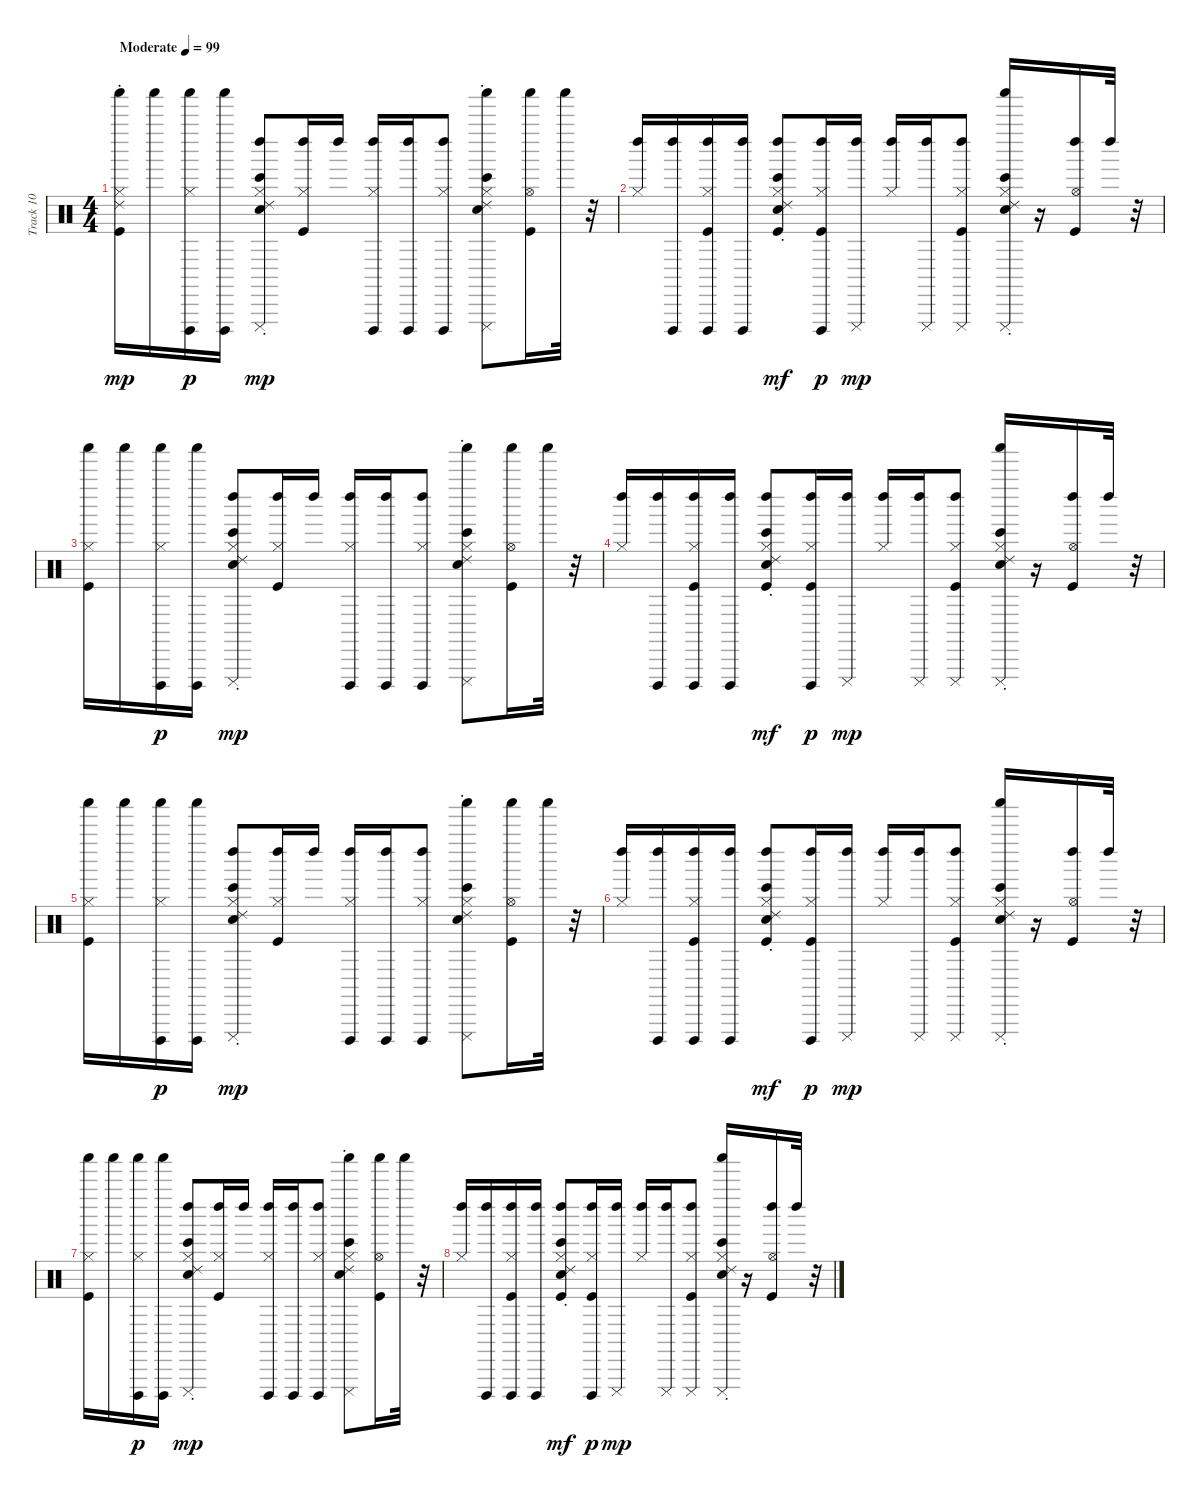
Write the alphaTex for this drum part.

\track ("Track 10" "Track 10") {instrument percussion}
\staff {score}
\articulation defaults
\ts (4 4)
\tempo (99 "Moderate")
\clef neutral
\ks c
("Ride (choke) 2" "Kick (hit)" "Hi-Hat (closed)" "Shaker (hit)").16{dy mp} "Shaker (hit)".16 ("Hi-Hat (closed)" "Cuica (open)" "Shaker (hit)").16{dy p} ("Cuica (open)" "Shaker (hit)").16 ("Bongo High (hit)" "Ride (choke) 2" "Electric Snare (hit)" "Hi-Hat (closed)" "Left Maraca (hit)" "Cuica (mute)").8{dy mp} ("Kick (hit)" "Hi-Hat (closed)" "Left Maraca (hit)").16 "Left Maraca (hit)".16 ("Hi-Hat (closed)" "Left Maraca (hit)" "Cuica (open)").16 ("Cuica (open)" "Left Maraca (hit)").16 ("Hi-Hat (closed)" "Left Maraca (hit)" "Cuica (open)").8 ("Bongo High (hit)" "Ride (choke) 2" "Electric Snare (hit)" "Hi-Hat (closed)" "Cuica (mute)" "Shaker (hit)").8 ("Kick (hit)" "Hi-Hat (open)" "Shaker (hit)").16 "Shaker (hit)".32 r.32 |
("Hi-Hat (closed)" "Left Maraca (hit)").16 ("Cuica (open)" "Left Maraca (hit)").16 ("Kick (hit)" "Hi-Hat (closed)" "Left Maraca (hit)" "Cuica (open)").16 ("Cuica (open)" "Left Maraca (hit)").16 ("Bongo High (hit)" "Ride (choke) 2" "Kick (hit)" "Electric Snare (hit)" "Hi-Hat (closed)" "Left Maraca (hit)").8{dy mf} ("Kick (hit)" "Hi-Hat (closed)" "Left Maraca (hit)" "Cuica (open)").16{dy p} ("Cuica (mute)" "Left Maraca (hit)").16{dy mp} ("Hi-Hat (closed)" "Left Maraca (hit)").16 ("Cuica (mute)" "Left Maraca (hit)").16 ("Kick (hit)" "Hi-Hat (closed)" "Left Maraca (hit)" "Cuica (mute)").8 ("Bongo High (hit)" "Ride (choke) 2" "Electric Snare (hit)" "Hi-Hat (closed)" "Cuica (mute)" "Shaker (hit)").16 r.16 ("Kick (hit)" "Hi-Hat (open)" "Left Maraca (hit)").16 "Left Maraca (hit)".32 r.32 |
("Kick (hit)" "Hi-Hat (closed)" "Shaker (hit)").16 "Shaker (hit)".16 ("Hi-Hat (closed)" "Cuica (open)" "Shaker (hit)").16{dy p} ("Cuica (open)" "Shaker (hit)").16 ("Bongo High (hit)" "Ride (choke) 2" "Electric Snare (hit)" "Hi-Hat (closed)" "Left Maraca (hit)" "Cuica (mute)").8{dy mp} ("Kick (hit)" "Hi-Hat (closed)" "Left Maraca (hit)").16 "Left Maraca (hit)".16 ("Hi-Hat (closed)" "Left Maraca (hit)" "Cuica (open)").16 ("Cuica (open)" "Left Maraca (hit)").16 ("Hi-Hat (closed)" "Left Maraca (hit)" "Cuica (open)").8 ("Bongo High (hit)" "Ride (choke) 2" "Electric Snare (hit)" "Hi-Hat (closed)" "Cuica (mute)" "Shaker (hit)").8 ("Kick (hit)" "Hi-Hat (open)" "Shaker (hit)").16 "Shaker (hit)".32 r.32 |
("Hi-Hat (closed)" "Left Maraca (hit)").16 ("Cuica (open)" "Left Maraca (hit)").16 ("Kick (hit)" "Hi-Hat (closed)" "Left Maraca (hit)" "Cuica (open)").16 ("Cuica (open)" "Left Maraca (hit)").16 ("Bongo High (hit)" "Ride (choke) 2" "Kick (hit)" "Electric Snare (hit)" "Hi-Hat (closed)" "Left Maraca (hit)").8{dy mf} ("Kick (hit)" "Hi-Hat (closed)" "Left Maraca (hit)" "Cuica (open)").16{dy p} ("Cuica (mute)" "Left Maraca (hit)").16{dy mp} ("Hi-Hat (closed)" "Left Maraca (hit)").16 ("Cuica (mute)" "Left Maraca (hit)").16 ("Kick (hit)" "Hi-Hat (closed)" "Left Maraca (hit)" "Cuica (mute)").8 ("Bongo High (hit)" "Ride (choke) 2" "Electric Snare (hit)" "Hi-Hat (closed)" "Cuica (mute)" "Shaker (hit)").16 r.16 ("Kick (hit)" "Hi-Hat (open)" "Left Maraca (hit)").16 "Left Maraca (hit)".32 r.32 |
("Kick (hit)" "Hi-Hat (closed)" "Shaker (hit)").16 "Shaker (hit)".16 ("Hi-Hat (closed)" "Cuica (open)" "Shaker (hit)").16{dy p} ("Cuica (open)" "Shaker (hit)").16 ("Bongo High (hit)" "Ride (choke) 2" "Electric Snare (hit)" "Hi-Hat (closed)" "Left Maraca (hit)" "Cuica (mute)").8{dy mp} ("Kick (hit)" "Hi-Hat (closed)" "Left Maraca (hit)").16 "Left Maraca (hit)".16 ("Hi-Hat (closed)" "Left Maraca (hit)" "Cuica (open)").16 ("Cuica (open)" "Left Maraca (hit)").16 ("Hi-Hat (closed)" "Left Maraca (hit)" "Cuica (open)").8 ("Bongo High (hit)" "Ride (choke) 2" "Electric Snare (hit)" "Hi-Hat (closed)" "Cuica (mute)" "Shaker (hit)").8 ("Kick (hit)" "Hi-Hat (open)" "Shaker (hit)").16 "Shaker (hit)".32 r.32 |
("Hi-Hat (closed)" "Left Maraca (hit)").16 ("Cuica (open)" "Left Maraca (hit)").16 ("Kick (hit)" "Hi-Hat (closed)" "Left Maraca (hit)" "Cuica (open)").16 ("Cuica (open)" "Left Maraca (hit)").16 ("Bongo High (hit)" "Ride (choke) 2" "Kick (hit)" "Electric Snare (hit)" "Hi-Hat (closed)" "Left Maraca (hit)").8{dy mf} ("Kick (hit)" "Hi-Hat (closed)" "Left Maraca (hit)" "Cuica (open)").16{dy p} ("Cuica (mute)" "Left Maraca (hit)").16{dy mp} ("Hi-Hat (closed)" "Left Maraca (hit)").16 ("Cuica (mute)" "Left Maraca (hit)").16 ("Kick (hit)" "Hi-Hat (closed)" "Left Maraca (hit)" "Cuica (mute)").8 ("Bongo High (hit)" "Ride (choke) 2" "Electric Snare (hit)" "Hi-Hat (closed)" "Cuica (mute)" "Shaker (hit)").16 r.16 ("Kick (hit)" "Hi-Hat (open)" "Left Maraca (hit)").16 "Left Maraca (hit)".32 r.32 |
("Kick (hit)" "Hi-Hat (closed)" "Shaker (hit)").16 "Shaker (hit)".16 ("Hi-Hat (closed)" "Cuica (open)" "Shaker (hit)").16{dy p} ("Cuica (open)" "Shaker (hit)").16 ("Bongo High (hit)" "Ride (choke) 2" "Electric Snare (hit)" "Hi-Hat (closed)" "Left Maraca (hit)" "Cuica (mute)").8{dy mp} ("Kick (hit)" "Hi-Hat (closed)" "Left Maraca (hit)").16 "Left Maraca (hit)".16 ("Hi-Hat (closed)" "Left Maraca (hit)" "Cuica (open)").16 ("Cuica (open)" "Left Maraca (hit)").16 ("Hi-Hat (closed)" "Left Maraca (hit)" "Cuica (open)").8 ("Bongo High (hit)" "Ride (choke) 2" "Electric Snare (hit)" "Hi-Hat (closed)" "Cuica (mute)" "Shaker (hit)").8 ("Kick (hit)" "Hi-Hat (open)" "Shaker (hit)").16 "Shaker (hit)".32 r.32 |
("Hi-Hat (closed)" "Left Maraca (hit)").16 ("Cuica (open)" "Left Maraca (hit)").16 ("Kick (hit)" "Hi-Hat (closed)" "Left Maraca (hit)" "Cuica (open)").16 ("Cuica (open)" "Left Maraca (hit)").16 ("Bongo High (hit)" "Ride (choke) 2" "Kick (hit)" "Electric Snare (hit)" "Hi-Hat (closed)" "Left Maraca (hit)").8{dy mf} ("Kick (hit)" "Hi-Hat (closed)" "Left Maraca (hit)" "Cuica (open)").16{dy p} ("Cuica (mute)" "Left Maraca (hit)").16{dy mp} ("Hi-Hat (closed)" "Left Maraca (hit)").16 ("Cuica (mute)" "Left Maraca (hit)").16 ("Kick (hit)" "Hi-Hat (closed)" "Left Maraca (hit)" "Cuica (mute)").8 ("Bongo High (hit)" "Ride (choke) 2" "Electric Snare (hit)" "Hi-Hat (closed)" "Cuica (mute)" "Shaker (hit)").16 r.16 ("Kick (hit)" "Hi-Hat (open)" "Left Maraca (hit)").16 "Left Maraca (hit)".32 r.32
